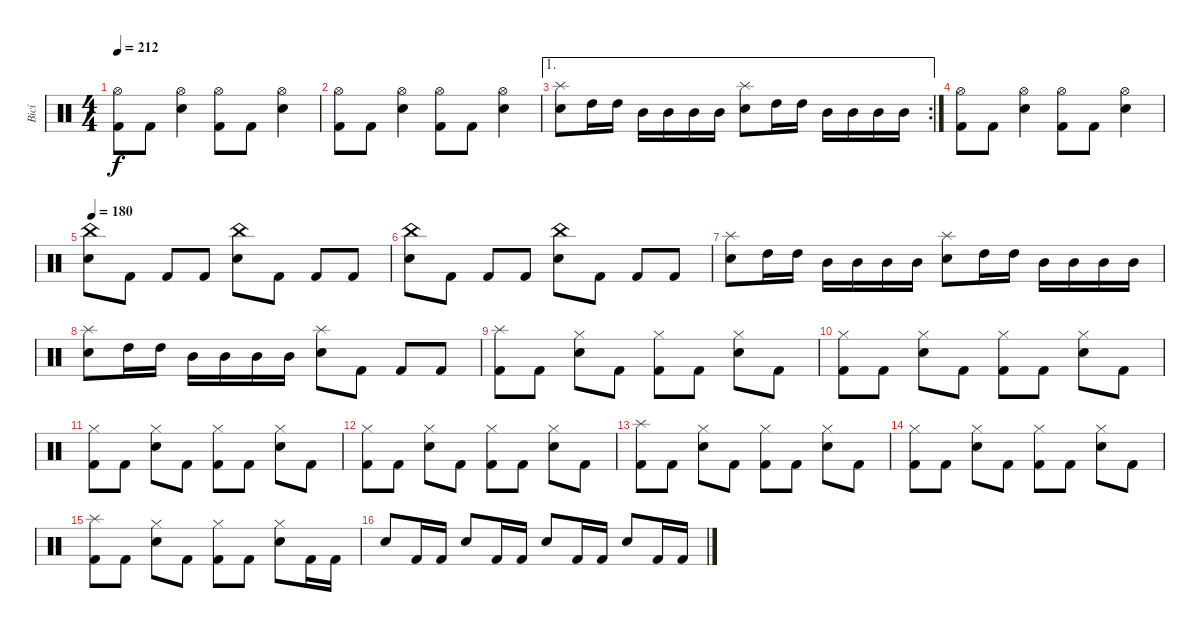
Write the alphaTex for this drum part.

\track ("Bicí" "Bicí") {instrument percussion}
\staff {score}
\articulation defaults
\ts (4 4)
\tempo 212
\clef neutral
\ks c
("Kick (hit) 2" "Hi-Hat (open)").8{dy f} "Kick (hit) 2".8 ("Snare (hit) 2" "Hi-Hat (open)").4 ("Kick (hit) 2" "Hi-Hat (open)").8 "Kick (hit) 2".8 ("Snare (hit) 2" "Hi-Hat (open)").4 |
("Kick (hit) 2" "Hi-Hat (open)").8 "Kick (hit) 2".8 ("Snare (hit) 2" "Hi-Hat (open)").4 ("Kick (hit) 2" "Hi-Hat (open)").8 "Kick (hit) 2".8 ("Snare (hit) 2" "Hi-Hat (open)").4 |
\ae 1
\rc 2
("Snare (hit) 2" "Splash (hit)").8 "High Tom (hit)".16 "High Tom (hit)".16 "Mid Tom (hit)".16 "Mid Tom (hit)".16 "Mid Tom (hit)".16 "Mid Tom (hit)".16 ("Snare (hit) 2" "Splash (hit)").8 "High Tom (hit)".16 "High Tom (hit)".16 "Mid Tom (hit)".16 "Mid Tom (hit)".16 "Mid Tom (hit)".16 "Mid Tom (hit)".16 |
("Kick (hit) 2" "Hi-Hat (open)").8 "Kick (hit) 2".8 ("Snare (hit) 2" "Hi-Hat (open)").4 ("Kick (hit) 2" "Hi-Hat (open)").8 "Kick (hit) 2".8 ("Snare (hit) 2" "Hi-Hat (open)").4 |
\tempo 180
("Snare (hit) 2" "China (hit)").8 "Kick (hit) 2".8 "Kick (hit) 2".8 "Kick (hit) 2".8 ("Snare (hit) 2" "China (hit)").8 "Kick (hit) 2".8 "Kick (hit) 2".8 "Kick (hit) 2".8 |
("Snare (hit) 2" "China (hit)").8 "Kick (hit) 2".8 "Kick (hit) 2".8 "Kick (hit) 2".8 ("Snare (hit) 2" "China (hit)").8 "Kick (hit) 2".8 "Kick (hit) 2".8 "Kick (hit) 2".8 |
("Snare (hit) 2" "Splash (hit)").8 "High Tom (hit)".16 "High Tom (hit)".16 "Mid Tom (hit)".16 "Mid Tom (hit)".16 "Mid Tom (hit)".16 "Mid Tom (hit)".16 ("Snare (hit) 2" "Splash (hit)").8 "High Tom (hit)".16 "High Tom (hit)".16 "Mid Tom (hit)".16 "Mid Tom (hit)".16 "Mid Tom (hit)".16 "Mid Tom (hit)".16 |
("Snare (hit) 2" "Splash (hit)").8 "High Tom (hit)".16 "High Tom (hit)".16 "Mid Tom (hit)".16 "Mid Tom (hit)".16 "Mid Tom (hit)".16 "Mid Tom (hit)".16 ("Snare (hit) 2" "Splash (hit)").8 "Kick (hit) 2".8 "Kick (hit) 2".8 "Kick (hit) 2".8 |
("Kick (hit) 2" "Splash (hit)").8 "Kick (hit) 2".8 ("Snare (hit) 2" "Hi-Hat (closed)").8 "Kick (hit) 2".8 ("Kick (hit) 2" "Hi-Hat (closed)").8 "Kick (hit) 2".8 ("Snare (hit) 2" "Hi-Hat (closed)").8 "Kick (hit) 2".8 |
("Kick (hit) 2" "Hi-Hat (closed)").8 "Kick (hit) 2".8 ("Snare (hit) 2" "Hi-Hat (closed)").8 "Kick (hit) 2".8 ("Kick (hit) 2" "Hi-Hat (closed)").8 "Kick (hit) 2".8 ("Snare (hit) 2" "Hi-Hat (closed)").8 "Kick (hit) 2".8 |
("Kick (hit) 2" "Hi-Hat (closed)").8 "Kick (hit) 2".8 ("Snare (hit) 2" "Hi-Hat (closed)").8 "Kick (hit) 2".8 ("Kick (hit) 2" "Hi-Hat (closed)").8 "Kick (hit) 2".8 ("Snare (hit) 2" "Hi-Hat (closed)").8 "Kick (hit) 2".8 |
("Kick (hit) 2" "Hi-Hat (closed)").8 "Kick (hit) 2".8 ("Snare (hit) 2" "Hi-Hat (closed)").8 "Kick (hit) 2".8 ("Kick (hit) 2" "Hi-Hat (closed)").8 "Kick (hit) 2".8 ("Snare (hit) 2" "Hi-Hat (closed)").8 "Kick (hit) 2".8 |
("Kick (hit) 2" "Splash (hit)").8 "Kick (hit) 2".8 ("Snare (hit) 2" "Hi-Hat (closed)").8 "Kick (hit) 2".8 ("Kick (hit) 2" "Hi-Hat (closed)").8 "Kick (hit) 2".8 ("Snare (hit) 2" "Hi-Hat (closed)").8 "Kick (hit) 2".8 |
("Kick (hit) 2" "Hi-Hat (closed)").8 "Kick (hit) 2".8 ("Snare (hit) 2" "Hi-Hat (closed)").8 "Kick (hit) 2".8 ("Kick (hit) 2" "Hi-Hat (closed)").8 "Kick (hit) 2".8 ("Snare (hit) 2" "Hi-Hat (closed)").8 "Kick (hit) 2".8 |
("Kick (hit) 2" "Splash (hit)").8 "Kick (hit) 2".8 ("Snare (hit) 2" "Hi-Hat (closed)").8 "Kick (hit) 2".8 ("Kick (hit) 2" "Hi-Hat (closed)").8 "Kick (hit) 2".8 ("Snare (hit) 2" "Hi-Hat (closed)").8 "Kick (hit) 2".16 "Kick (hit) 2".16 |
"Snare (hit) 2".8 "Kick (hit) 2".16 "Kick (hit) 2".16 "Snare (hit) 2".8 "Kick (hit) 2".16 "Kick (hit) 2".16 "Snare (hit) 2".8 "Kick (hit) 2".16 "Kick (hit) 2".16 "Snare (hit) 2".8 "Kick (hit) 2".16 "Kick (hit) 2".16
